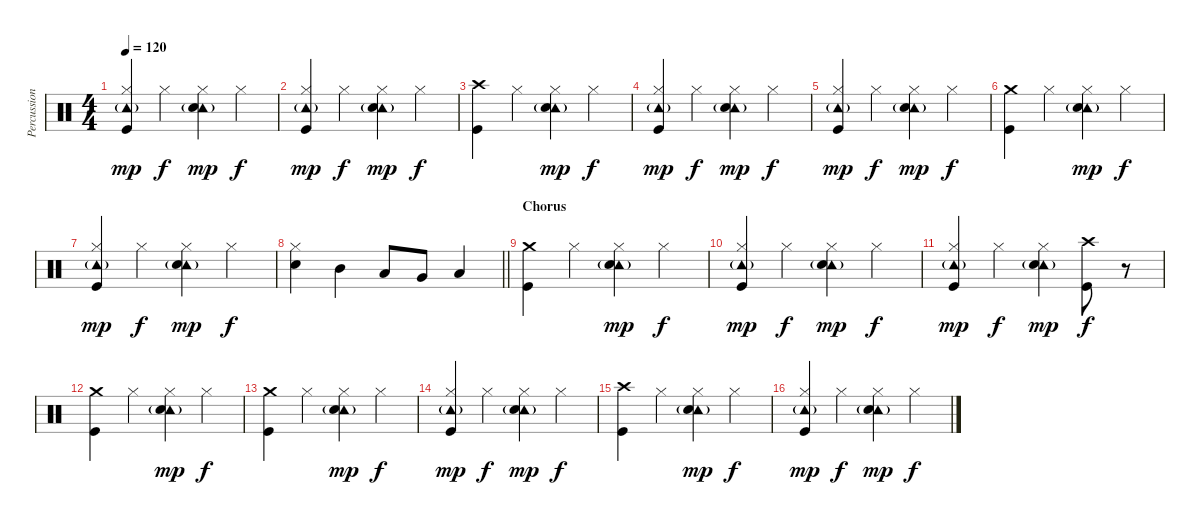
\track ("Percussioni" "Percussion") {instrument percussion}
\staff {score}
\articulation defaults
\ts (4 4)
\tempo 120
\clef neutral
\ks c
("Tambourine (hit)"{g} "Hi-Hat (closed)" "Kick (hit)").4{dy mp} "Hi-Hat (closed)".4{dy f} ("Tambourine (hit)"{g} "Hi-Hat (closed)" "Snare (hit) 2").4{dy mp} "Hi-Hat (closed)".4{dy f} |
("Tambourine (hit)"{g} "Hi-Hat (closed)" "Kick (hit)").4{dy mp} "Hi-Hat (closed)".4{dy f} ("Tambourine (hit)"{g} "Hi-Hat (closed)" "Snare (hit) 2").4{dy mp} "Hi-Hat (closed)".4{dy f} |
("Crash high (hit)" "Kick (hit)").4 "Hi-Hat (closed)".4 ("Tambourine (hit)"{g} "Hi-Hat (closed)" "Snare (hit) 2").4{dy mp} "Hi-Hat (closed)".4{dy f} |
("Tambourine (hit)"{g} "Hi-Hat (closed)" "Kick (hit)").4{dy mp} "Hi-Hat (closed)".4{dy f} ("Tambourine (hit)"{g} "Hi-Hat (closed)" "Snare (hit) 2").4{dy mp} "Hi-Hat (closed)".4{dy f} |
("Tambourine (hit)"{g} "Hi-Hat (closed)" "Kick (hit)").4{dy mp} "Hi-Hat (closed)".4{dy f} ("Tambourine (hit)"{g} "Hi-Hat (closed)" "Snare (hit) 2").4{dy mp} "Hi-Hat (closed)".4{dy f} |
("Crash medium (hit)" "Kick (hit)").4 "Hi-Hat (closed)".4 ("Tambourine (hit)"{g} "Hi-Hat (closed)" "Snare (hit) 2").4{dy mp} "Hi-Hat (closed)".4{dy f} |
("Tambourine (hit)"{g} "Hi-Hat (closed)" "Kick (hit)").4{dy mp} "Hi-Hat (closed)".4{dy f} ("Tambourine (hit)"{g} "Hi-Hat (closed)" "Snare (hit) 2").4{dy mp} "Hi-Hat (closed)".4{dy f} |
\barLineRight lightlight
("Hi-Hat (closed)" "Snare (hit) 2").4 "Mid Tom (hit)".4 "Low Tom (hit)".8 "Very Low Tom (hit)".8 "Low Floor Tom (hit)".4 |
\section ("" "Chorus")
("Crash medium (hit)" "Kick (hit)").4 "Hi-Hat (closed)".4 ("Tambourine (hit)"{g} "Hi-Hat (closed)" "Snare (hit) 2").4{dy mp} "Hi-Hat (closed)".4{dy f} |
("Tambourine (hit)"{g} "Hi-Hat (closed)" "Kick (hit)").4{dy mp} "Hi-Hat (closed)".4{dy f} ("Tambourine (hit)"{g} "Hi-Hat (closed)" "Snare (hit) 2").4{dy mp} "Hi-Hat (closed)".4{dy f} |
("Tambourine (hit)"{g} "Hi-Hat (closed)" "Kick (hit)").4{dy mp} "Hi-Hat (closed)".4{dy f} ("Tambourine (hit)"{g} "Hi-Hat (closed)" "Snare (hit) 2").4{dy mp} ("Crash high (hit)" "Kick (hit)").8{dy f} r.8 |
("Crash medium (hit)" "Kick (hit)").4 "Hi-Hat (closed)".4 ("Tambourine (hit)"{g} "Hi-Hat (closed)" "Snare (hit) 2").4{dy mp} "Hi-Hat (closed)".4{dy f} |
("Crash medium (hit)" "Kick (hit)").4 "Hi-Hat (closed)".4 ("Tambourine (hit)"{g} "Hi-Hat (closed)" "Snare (hit) 2").4{dy mp} "Hi-Hat (closed)".4{dy f} |
("Tambourine (hit)"{g} "Hi-Hat (closed)" "Kick (hit)").4{dy mp} "Hi-Hat (closed)".4{dy f} ("Tambourine (hit)"{g} "Hi-Hat (closed)" "Snare (hit) 2").4{dy mp} "Hi-Hat (closed)".4{dy f} |
("Crash high (hit)" "Kick (hit)").4 "Hi-Hat (closed)".4 ("Tambourine (hit)"{g} "Hi-Hat (closed)" "Snare (hit) 2").4{dy mp} "Hi-Hat (closed)".4{dy f} |
("Tambourine (hit)"{g} "Hi-Hat (closed)" "Kick (hit)").4{dy mp} "Hi-Hat (closed)".4{dy f} ("Tambourine (hit)"{g} "Hi-Hat (closed)" "Snare (hit) 2").4{dy mp} "Hi-Hat (closed)".4{dy f}
